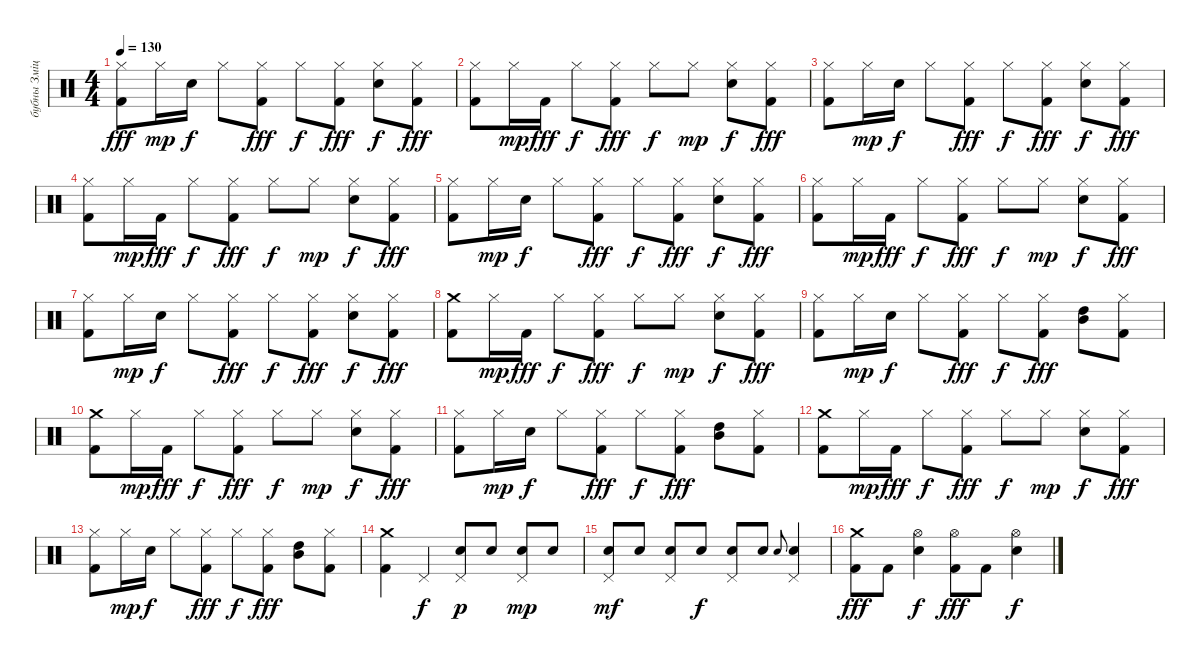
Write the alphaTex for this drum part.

\track ("бубны Змiцер" "бубны Змiц") {instrument percussion}
\staff {score}
\articulation defaults
\ts (4 4)
\tempo 130
\clef neutral
\ks c
("Hi-Hat (closed)" "Kick (hit) 2").8{dy fff} "Hi-Hat (closed)".16{dy mp} "Electric Snare (hit)".16{dy f} "Hi-Hat (closed)".8 ("Hi-Hat (closed)" "Kick (hit) 2").8{dy fff} "Hi-Hat (closed)".8{dy f} ("Hi-Hat (closed)" "Kick (hit) 2").8{dy fff} ("Hi-Hat (closed)" "Electric Snare (hit)").8{dy f} ("Hi-Hat (closed)" "Kick (hit) 2").8{dy fff} |
("Hi-Hat (closed)" "Kick (hit) 2").8 "Hi-Hat (closed)".16{dy mp} "Kick (hit) 2".16{dy fff} "Hi-Hat (closed)".8{dy f} ("Hi-Hat (closed)" "Kick (hit) 2").8{dy fff} "Hi-Hat (closed)".8{dy f} "Hi-Hat (closed)".8{dy mp} ("Hi-Hat (closed)" "Electric Snare (hit)").8{dy f} ("Hi-Hat (closed)" "Kick (hit) 2").8{dy fff} |
("Hi-Hat (closed)" "Kick (hit) 2").8 "Hi-Hat (closed)".16{dy mp} "Electric Snare (hit)".16{dy f} "Hi-Hat (closed)".8 ("Hi-Hat (closed)" "Kick (hit) 2").8{dy fff} "Hi-Hat (closed)".8{dy f} ("Hi-Hat (closed)" "Kick (hit) 2").8{dy fff} ("Hi-Hat (closed)" "Electric Snare (hit)").8{dy f} ("Hi-Hat (closed)" "Kick (hit) 2").8{dy fff} |
("Hi-Hat (closed)" "Kick (hit) 2").8 "Hi-Hat (closed)".16{dy mp} "Kick (hit) 2".16{dy fff} "Hi-Hat (closed)".8{dy f} ("Hi-Hat (closed)" "Kick (hit) 2").8{dy fff} "Hi-Hat (closed)".8{dy f} "Hi-Hat (closed)".8{dy mp} ("Hi-Hat (closed)" "Electric Snare (hit)").8{dy f} ("Hi-Hat (closed)" "Kick (hit) 2").8{dy fff} |
("Hi-Hat (closed)" "Kick (hit) 2").8 "Hi-Hat (closed)".16{dy mp} "Electric Snare (hit)".16{dy f} "Hi-Hat (closed)".8 ("Hi-Hat (closed)" "Kick (hit) 2").8{dy fff} "Hi-Hat (closed)".8{dy f} ("Hi-Hat (closed)" "Kick (hit) 2").8{dy fff} ("Hi-Hat (closed)" "Electric Snare (hit)").8{dy f} ("Hi-Hat (closed)" "Kick (hit) 2").8{dy fff} |
("Hi-Hat (closed)" "Kick (hit) 2").8 "Hi-Hat (closed)".16{dy mp} "Kick (hit) 2".16{dy fff} "Hi-Hat (closed)".8{dy f} ("Hi-Hat (closed)" "Kick (hit) 2").8{dy fff} "Hi-Hat (closed)".8{dy f} "Hi-Hat (closed)".8{dy mp} ("Hi-Hat (closed)" "Electric Snare (hit)").8{dy f} ("Hi-Hat (closed)" "Kick (hit) 2").8{dy fff} |
("Hi-Hat (closed)" "Kick (hit) 2").8 "Hi-Hat (closed)".16{dy mp} "Electric Snare (hit)".16{dy f} "Hi-Hat (closed)".8 ("Hi-Hat (closed)" "Kick (hit) 2").8{dy fff} "Hi-Hat (closed)".8{dy f} ("Hi-Hat (closed)" "Kick (hit) 2").8{dy fff} ("Hi-Hat (closed)" "Electric Snare (hit)").8{dy f} ("Hi-Hat (closed)" "Kick (hit) 2").8{dy fff} |
("Crash medium (hit)" "Kick (hit) 2").8 "Hi-Hat (closed)".16{dy mp} "Kick (hit) 2".16{dy fff} "Hi-Hat (closed)".8{dy f} ("Hi-Hat (closed)" "Kick (hit) 2").8{dy fff} "Hi-Hat (closed)".8{dy f} "Hi-Hat (closed)".8{dy mp} ("Hi-Hat (closed)" "Electric Snare (hit)").8{dy f} ("Hi-Hat (closed)" "Kick (hit) 2").8{dy fff} |
("Hi-Hat (closed)" "Kick (hit) 2").8 "Hi-Hat (closed)".16{dy mp} "Electric Snare (hit)".16{dy f} "Hi-Hat (closed)".8 ("Hi-Hat (closed)" "Kick (hit) 2").8{dy fff} "Hi-Hat (closed)".8{dy f} ("Hi-Hat (closed)" "Kick (hit) 2").8{dy fff} ("Mid Tom (hit)" "High Tom (hit)").8 ("Hi-Hat (closed)" "Kick (hit) 2").8 |
("Crash medium (hit)" "Kick (hit) 2").8 "Hi-Hat (closed)".16{dy mp} "Kick (hit) 2".16{dy fff} "Hi-Hat (closed)".8{dy f} ("Hi-Hat (closed)" "Kick (hit) 2").8{dy fff} "Hi-Hat (closed)".8{dy f} "Hi-Hat (closed)".8{dy mp} ("Hi-Hat (closed)" "Electric Snare (hit)").8{dy f} ("Hi-Hat (closed)" "Kick (hit) 2").8{dy fff} |
("Hi-Hat (closed)" "Kick (hit) 2").8 "Hi-Hat (closed)".16{dy mp} "Electric Snare (hit)".16{dy f} "Hi-Hat (closed)".8 ("Hi-Hat (closed)" "Kick (hit) 2").8{dy fff} "Hi-Hat (closed)".8{dy f} ("Hi-Hat (closed)" "Kick (hit) 2").8{dy fff} ("Mid Tom (hit)" "High Tom (hit)").8 ("Hi-Hat (closed)" "Kick (hit) 2").8 |
("Crash medium (hit)" "Kick (hit) 2").8 "Hi-Hat (closed)".16{dy mp} "Kick (hit) 2".16{dy fff} "Hi-Hat (closed)".8{dy f} ("Hi-Hat (closed)" "Kick (hit) 2").8{dy fff} "Hi-Hat (closed)".8{dy f} "Hi-Hat (closed)".8{dy mp} ("Hi-Hat (closed)" "Electric Snare (hit)").8{dy f} ("Hi-Hat (closed)" "Kick (hit) 2").8{dy fff} |
("Hi-Hat (closed)" "Kick (hit) 2").8 "Hi-Hat (closed)".16{dy mp} "Electric Snare (hit)".16{dy f} "Hi-Hat (closed)".8 ("Hi-Hat (closed)" "Kick (hit) 2").8{dy fff} "Hi-Hat (closed)".8{dy f} ("Hi-Hat (closed)" "Kick (hit) 2").8{dy fff} ("Mid Tom (hit)" "High Tom (hit)").8 ("Hi-Hat (closed)" "Kick (hit) 2").8 |
("Crash medium (hit)" "Kick (hit) 2").4 "Pedal Hi-Hat (hit)".4{dy f} ("Electric Snare (hit)" "Pedal Hi-Hat (hit)").8{dy p} "Electric Snare (hit)".8 ("Electric Snare (hit)" "Pedal Hi-Hat (hit)").8{dy mp} "Electric Snare (hit)".8 |
("Electric Snare (hit)" "Pedal Hi-Hat (hit)").8{dy mf} "Electric Snare (hit)".8 ("Electric Snare (hit)" "Pedal Hi-Hat (hit)").8 "Electric Snare (hit)".8{dy f} ("Electric Snare (hit)" "Pedal Hi-Hat (hit)").8 "Electric Snare (hit)".8 "Electric Snare (hit)".8{gr onbeat} ("Electric Snare (hit)" "Pedal Hi-Hat (hit)").4 |
("Crash medium (hit)" "Kick (hit) 2").8{dy fff} "Kick (hit) 2".8 ("Hi-Hat (open)" "Electric Snare (hit)").4{dy f} ("Hi-Hat (open)" "Kick (hit) 2").8{dy fff} "Kick (hit) 2".8 ("Hi-Hat (open)" "Electric Snare (hit)").4{dy f}
